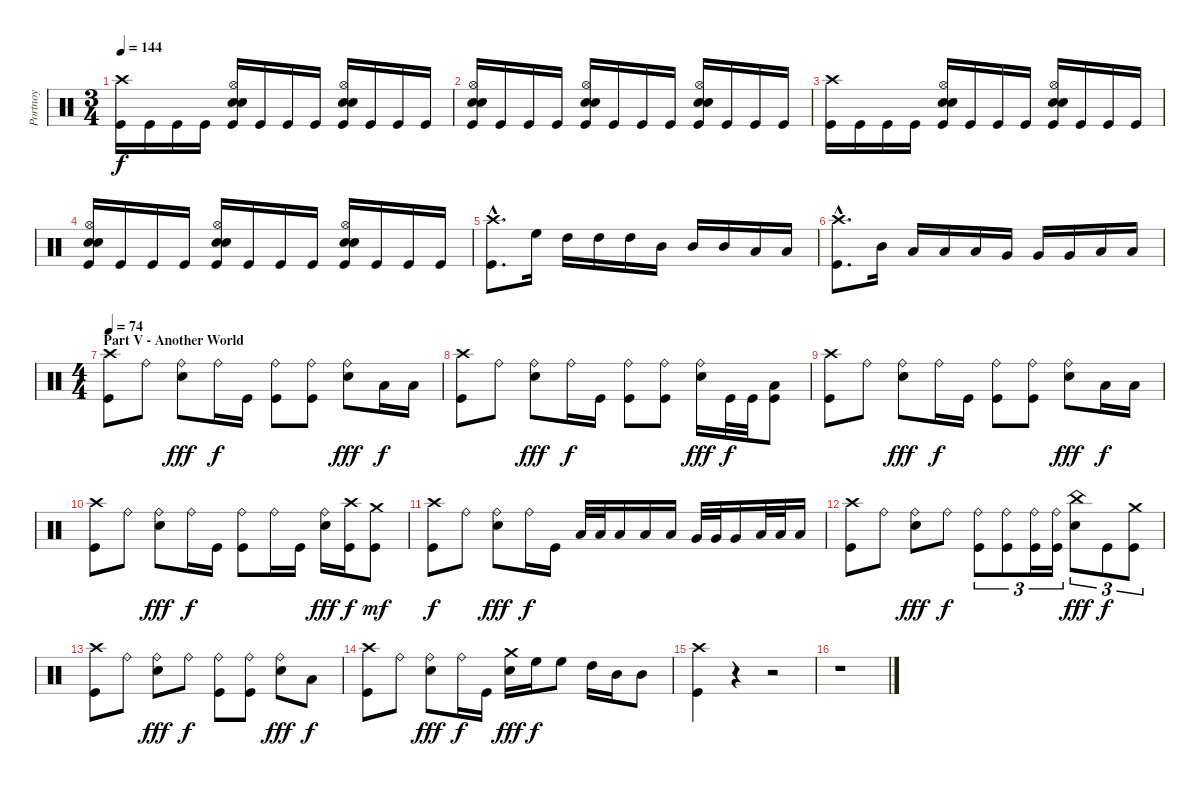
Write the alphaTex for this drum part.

\track ("Portnoy" "Portnoy") {instrument percussion}
\staff {score}
\articulation defaults
\ts (3 4)
\tempo 144
\clef neutral
\ks c
("Crash high (hit)" "Kick (hit)").16{dy f} "Kick (hit)".16 "Kick (hit)".16 "Kick (hit)".16 ("Hi-Hat (open)" "Snare (hit) 2" "Electric Snare (hit)" "Kick (hit)").16 "Kick (hit)".16 "Kick (hit)".16 "Kick (hit)".16 ("Hi-Hat (open)" "Snare (hit) 2" "Electric Snare (hit)" "Kick (hit)").16 "Kick (hit)".16 "Kick (hit)".16 "Kick (hit)".16 |
("Hi-Hat (open)" "Snare (hit) 2" "Electric Snare (hit)" "Kick (hit)").16 "Kick (hit)".16 "Kick (hit)".16 "Kick (hit)".16 ("Hi-Hat (open)" "Snare (hit) 2" "Electric Snare (hit)" "Kick (hit)").16 "Kick (hit)".16 "Kick (hit)".16 "Kick (hit)".16 ("Hi-Hat (open)" "Snare (hit) 2" "Electric Snare (hit)" "Kick (hit)").16 "Kick (hit)".16 "Kick (hit)".16 "Kick (hit)".16 |
("Crash high (hit)" "Kick (hit)").16 "Kick (hit)".16 "Kick (hit)".16 "Kick (hit)".16 ("Hi-Hat (open)" "Snare (hit) 2" "Electric Snare (hit)" "Kick (hit)").16 "Kick (hit)".16 "Kick (hit)".16 "Kick (hit)".16 ("Hi-Hat (open)" "Snare (hit) 2" "Electric Snare (hit)" "Kick (hit)").16 "Kick (hit)".16 "Kick (hit)".16 "Kick (hit)".16 |
("Hi-Hat (open)" "Snare (hit) 2" "Electric Snare (hit)" "Kick (hit)").16 "Kick (hit)".16 "Kick (hit)".16 "Kick (hit)".16 ("Hi-Hat (open)" "Snare (hit) 2" "Electric Snare (hit)" "Kick (hit)").16 "Kick (hit)".16 "Kick (hit)".16 "Kick (hit)".16 ("Hi-Hat (open)" "Snare (hit) 2" "Electric Snare (hit)" "Kick (hit)").16 "Kick (hit)".16 "Kick (hit)".16 "Kick (hit)".16 |
("Crash high (hit)"{hac} "Kick (hit)"{hac}).8{d} "High Floor Tom (hit)".16 "High Tom (hit)".16 "High Tom (hit)".16 "High Tom (hit)".16 "Mid Tom (hit)".16 "Mid Tom (hit)".16 "Mid Tom (hit)".16 "Low Tom (hit)".16 "Low Tom (hit)".16 |
("Crash high (hit)"{hac} "Kick (hit)"{hac}).8{d} "Mid Tom (hit)".16 "Low Tom (hit)".16 "Low Tom (hit)".16 "Low Tom (hit)".16 "Very Low Tom (hit)".16 "Very Low Tom (hit)".16 "Very Low Tom (hit)".16 "Low Floor Tom (hit)".16 "Low Floor Tom (hit)".16 |
\ts (4 4)
\section ("" "Part V - Another World")
\tempo 74
("Crash high (hit)" "Kick (hit)").8 "Ride (bell)".8 ("Ride (bell)" "Electric Snare (hit)").8{dy fff} "Ride (bell)".16{dy f} "Kick (hit)".16 ("Ride (bell)" "Kick (hit)").8 ("Ride (bell)" "Kick (hit)").8 ("Ride (bell)" "Electric Snare (hit)").8{dy fff} "Low Floor Tom (hit)".16{dy f} "Low Floor Tom (hit)".16 |
("Crash high (hit)" "Kick (hit)").8 "Ride (bell)".8 ("Ride (bell)" "Electric Snare (hit)").8{dy fff} "Ride (bell)".16{dy f} "Kick (hit)".16 ("Ride (bell)" "Kick (hit)").8 ("Ride (bell)" "Kick (hit)").8 ("Ride (bell)" "Electric Snare (hit)").16{dy fff} "Kick (hit)".32{dy f} "Kick (hit)".32 ("Low Floor Tom (hit)" "Kick (hit)").8 |
("Crash high (hit)" "Kick (hit)").8 "Ride (bell)".8 ("Ride (bell)" "Electric Snare (hit)").8{dy fff} "Ride (bell)".16{dy f} "Kick (hit)".16 ("Ride (bell)" "Kick (hit)").8 ("Ride (bell)" "Kick (hit)").8 ("Ride (bell)" "Electric Snare (hit)").8{dy fff} "Low Floor Tom (hit)".16{dy f} "Low Floor Tom (hit)".16 |
("Crash high (hit)" "Kick (hit)").8 "Ride (bell)".8 ("Ride (bell)" "Electric Snare (hit)").8{dy fff} "Ride (bell)".16{dy f} "Kick (hit)".16 ("Ride (bell)" "Kick (hit)").8 "Ride (bell)".16 "Kick (hit)".16 ("Ride (bell)" "Electric Snare (hit)").16{dy fff} ("Crash high (hit)" "Kick (hit)").16{dy f} ("Crash medium (hit)" "Kick (hit)").8{dy mf} |
("Crash high (hit)" "Kick (hit)").8{dy f} "Ride (bell)".8 ("Ride (bell)" "Electric Snare (hit)").8{dy fff} "Ride (bell)".16{dy f} "Kick (hit)".16 "Low Tom (hit)".32 "Low Tom (hit)".32 "Low Tom (hit)".16 "Low Tom (hit)".16 "Low Tom (hit)".16 "Very Low Tom (hit)".32 "Very Low Tom (hit)".32 "Very Low Tom (hit)".16 "Low Floor Tom (hit)".32 "Low Floor Tom (hit)".32 "Low Floor Tom (hit)".16 |
("Crash high (hit)" "Kick (hit)").8 "Ride (bell)".8 ("Ride (bell)" "Electric Snare (hit)").8{dy fff} "Ride (bell)".8{dy f} ("Ride (bell)" "Kick (hit)").8{tu (3 2)} ("Ride (bell)" "Kick (hit)").8{tu (3 2)} ("Ride (bell)" "Kick (hit)").16{tu (3 2)} ("Ride (bell)" "Kick (hit)").16{tu (3 2)} ("China (hit)" "Electric Snare (hit)").8{tu (3 2) dy fff} "Kick (hit)".8{tu (3 2) dy f} ("Crash medium (hit)" "Kick (hit)").8{tu (3 2)} |
("Crash high (hit)" "Kick (hit)").8 "Ride (bell)".8 ("Ride (bell)" "Electric Snare (hit)").8{dy fff} "Ride (bell)".8{dy f} ("Ride (bell)" "Kick (hit)").8 ("Ride (bell)" "Kick (hit)").8 ("Ride (bell)" "Electric Snare (hit)").8{dy fff} "Low Floor Tom (hit)".8{dy f} |
("Crash high (hit)" "Kick (hit)").8 "Ride (bell)".8 ("Ride (bell)" "Electric Snare (hit)").8{dy fff} "Ride (bell)".16{dy f} "Kick (hit)".16 ("Crash medium (hit)" "Electric Snare (hit)").16{dy fff} "High Floor Tom (hit)".16{dy f} "High Floor Tom (hit)".8 "High Tom (hit)".16 "Mid Tom (hit)".16 "Mid Tom (hit)".8 |
("Crash high (hit)" "Kick (hit)").4 r.4 r.2 |
r.1
